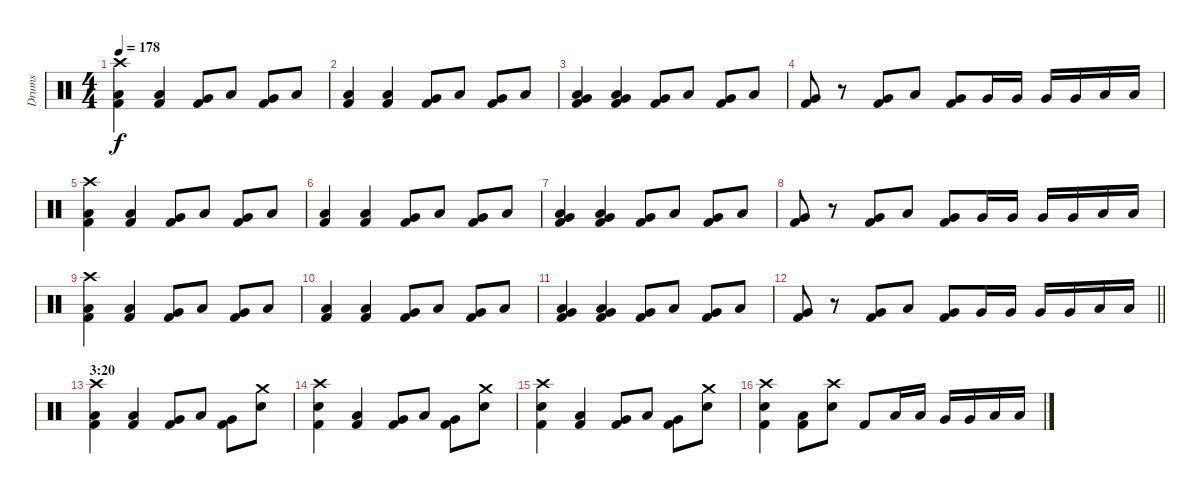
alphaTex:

\track ("Drums" "Drums") {instrument percussion}
\staff {score}
\articulation defaults
\ts (4 4)
\tempo 178
\clef neutral
\ks c
("Crash high (hit)" "Low Floor Tom (hit)" "Kick (hit) 2").4{dy f} ("Low Floor Tom (hit)" "Kick (hit) 2").4 ("Very Low Tom (hit)" "Kick (hit) 2").8 "Low Floor Tom (hit)".8 ("Very Low Tom (hit)" "Kick (hit) 2").8 "Low Floor Tom (hit)".8 |
("Low Floor Tom (hit)" "Kick (hit) 2").4 ("Low Floor Tom (hit)" "Kick (hit) 2").4 ("Very Low Tom (hit)" "Kick (hit) 2").8 "Low Floor Tom (hit)".8 ("Very Low Tom (hit)" "Kick (hit) 2").8 "Low Floor Tom (hit)".8 |
("Low Floor Tom (hit)" "Very Low Tom (hit)" "Kick (hit) 2").4 ("Low Floor Tom (hit)" "Very Low Tom (hit)" "Kick (hit) 2").4 ("Very Low Tom (hit)" "Kick (hit) 2").8 "Low Floor Tom (hit)".8 ("Very Low Tom (hit)" "Kick (hit) 2").8 "Low Floor Tom (hit)".8 |
("Very Low Tom (hit)" "Kick (hit) 2").8 r.8 ("Very Low Tom (hit)" "Kick (hit) 2").8 "Low Floor Tom (hit)".8 ("Very Low Tom (hit)" "Kick (hit) 2").8 "Very Low Tom (hit)".16 "Very Low Tom (hit)".16 "Very Low Tom (hit)".16 "Very Low Tom (hit)".16 "Low Floor Tom (hit)".16 "Low Floor Tom (hit)".16 |
("Crash high (hit)" "Low Floor Tom (hit)" "Kick (hit) 2").4 ("Low Floor Tom (hit)" "Kick (hit) 2").4 ("Very Low Tom (hit)" "Kick (hit) 2").8 "Low Floor Tom (hit)".8 ("Very Low Tom (hit)" "Kick (hit) 2").8 "Low Floor Tom (hit)".8 |
("Low Floor Tom (hit)" "Kick (hit) 2").4 ("Low Floor Tom (hit)" "Kick (hit) 2").4 ("Very Low Tom (hit)" "Kick (hit) 2").8 "Low Floor Tom (hit)".8 ("Very Low Tom (hit)" "Kick (hit) 2").8 "Low Floor Tom (hit)".8 |
("Low Floor Tom (hit)" "Very Low Tom (hit)" "Kick (hit) 2").4 ("Low Floor Tom (hit)" "Very Low Tom (hit)" "Kick (hit) 2").4 ("Very Low Tom (hit)" "Kick (hit) 2").8 "Low Floor Tom (hit)".8 ("Very Low Tom (hit)" "Kick (hit) 2").8 "Low Floor Tom (hit)".8 |
("Very Low Tom (hit)" "Kick (hit) 2").8 r.8 ("Very Low Tom (hit)" "Kick (hit) 2").8 "Low Floor Tom (hit)".8 ("Very Low Tom (hit)" "Kick (hit) 2").8 "Very Low Tom (hit)".16 "Very Low Tom (hit)".16 "Very Low Tom (hit)".16 "Very Low Tom (hit)".16 "Low Floor Tom (hit)".16 "Low Floor Tom (hit)".16 |
("Crash high (hit)" "Low Floor Tom (hit)" "Kick (hit) 2").4 ("Low Floor Tom (hit)" "Kick (hit) 2").4 ("Very Low Tom (hit)" "Kick (hit) 2").8 "Low Floor Tom (hit)".8 ("Very Low Tom (hit)" "Kick (hit) 2").8 "Low Floor Tom (hit)".8 |
("Low Floor Tom (hit)" "Kick (hit) 2").4 ("Low Floor Tom (hit)" "Kick (hit) 2").4 ("Very Low Tom (hit)" "Kick (hit) 2").8 "Low Floor Tom (hit)".8 ("Very Low Tom (hit)" "Kick (hit) 2").8 "Low Floor Tom (hit)".8 |
("Low Floor Tom (hit)" "Very Low Tom (hit)" "Kick (hit) 2").4 ("Low Floor Tom (hit)" "Very Low Tom (hit)" "Kick (hit) 2").4 ("Very Low Tom (hit)" "Kick (hit) 2").8 "Low Floor Tom (hit)".8 ("Very Low Tom (hit)" "Kick (hit) 2").8 "Low Floor Tom (hit)".8 |
\barLineRight lightlight
("Very Low Tom (hit)" "Kick (hit) 2").8 r.8 ("Very Low Tom (hit)" "Kick (hit) 2").8 "Low Floor Tom (hit)".8 ("Very Low Tom (hit)" "Kick (hit) 2").8 "Very Low Tom (hit)".16 "Very Low Tom (hit)".16 "Very Low Tom (hit)".16 "Very Low Tom (hit)".16 "Low Floor Tom (hit)".16 "Low Floor Tom (hit)".16 |
\section ("" "3:20")
("Crash high (hit)" "Low Floor Tom (hit)" "Kick (hit) 2").4 ("Low Floor Tom (hit)" "Kick (hit) 2").4 ("Very Low Tom (hit)" "Kick (hit) 2").8 "Low Floor Tom (hit)".8 ("Very Low Tom (hit)" "Kick (hit) 2").8 ("Crash medium (hit)" "Electric Snare (hit)").8 |
("Crash high (hit)" "Electric Snare (hit)" "Kick (hit) 2").4 ("Low Floor Tom (hit)" "Kick (hit) 2").4 ("Very Low Tom (hit)" "Kick (hit) 2").8 "Low Floor Tom (hit)".8 ("Very Low Tom (hit)" "Kick (hit) 2").8 ("Crash medium (hit)" "Electric Snare (hit)").8 |
("Crash high (hit)" "Electric Snare (hit)" "Kick (hit) 2").4 ("Low Floor Tom (hit)" "Kick (hit) 2").4 ("Very Low Tom (hit)" "Kick (hit) 2").8 "Low Floor Tom (hit)".8 ("Very Low Tom (hit)" "Kick (hit) 2").8 ("Crash medium (hit)" "Electric Snare (hit)").8 |
("Crash high (hit)" "Electric Snare (hit)" "Kick (hit) 2").4 ("Low Floor Tom (hit)" "Kick (hit) 2").8 ("Crash high (hit)" "Electric Snare (hit)").8 "Kick (hit) 2".8 "Low Floor Tom (hit)".16 "Low Floor Tom (hit)".16 "Very Low Tom (hit)".16 "Very Low Tom (hit)".16 "Low Floor Tom (hit)".16 "Low Floor Tom (hit)".16
